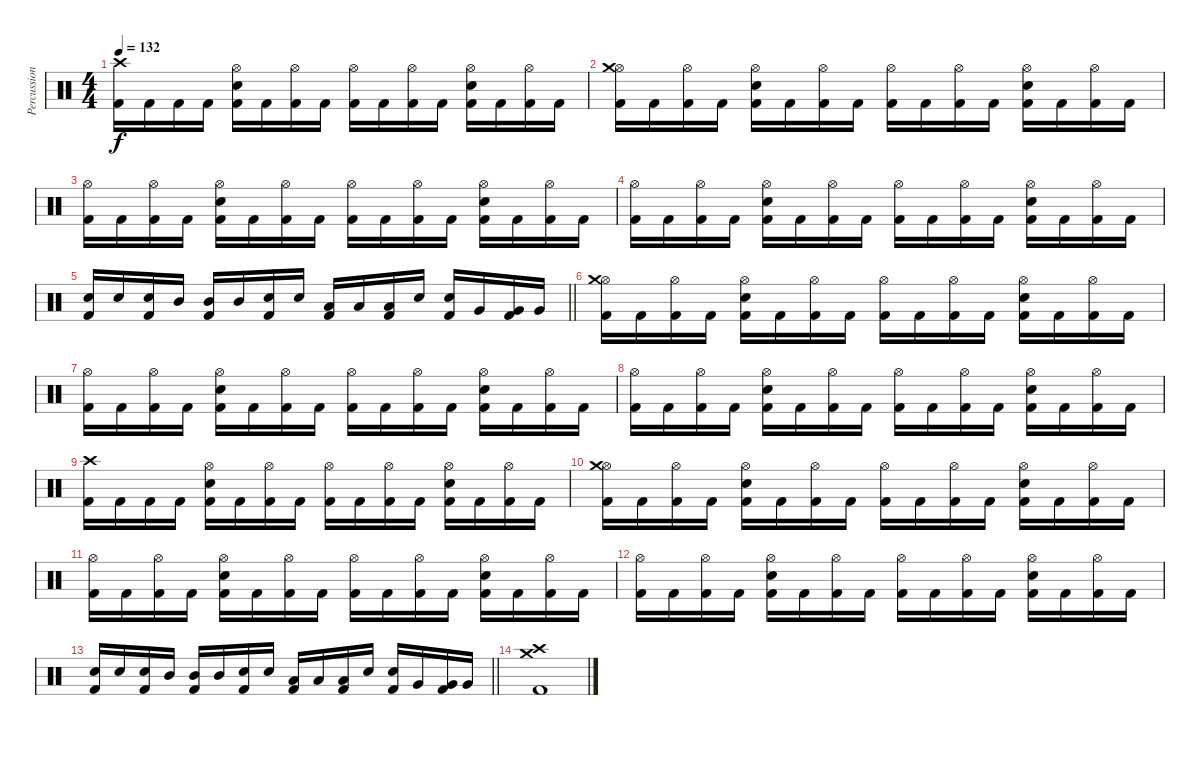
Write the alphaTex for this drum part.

\track ("Percussion" "Percussion") {instrument percussion}
\staff {score}
\articulation defaults
\ts (4 4)
\tempo 132
\clef neutral
\ks c
("Kick (hit) 2" "Crash high (hit)").16{dy f} "Kick (hit) 2".16 "Kick (hit) 2".16 "Kick (hit) 2".16 ("Kick (hit) 2" "Electric Snare (hit)" "Hi-Hat (open)").16 "Kick (hit) 2".16 ("Kick (hit) 2" "Hi-Hat (open)").16 "Kick (hit) 2".16 ("Kick (hit) 2" "Hi-Hat (open)").16 "Kick (hit) 2".16 ("Kick (hit) 2" "Hi-Hat (open)").16 "Kick (hit) 2".16 ("Kick (hit) 2" "Electric Snare (hit)" "Hi-Hat (open)").16 "Kick (hit) 2".16 ("Kick (hit) 2" "Hi-Hat (open)").16 "Kick (hit) 2".16 |
("Kick (hit) 2" "Hi-Hat (open)" "Crash medium (hit)").16 "Kick (hit) 2".16 ("Kick (hit) 2" "Hi-Hat (open)").16 "Kick (hit) 2".16 ("Kick (hit) 2" "Electric Snare (hit)" "Hi-Hat (open)").16 "Kick (hit) 2".16 ("Kick (hit) 2" "Hi-Hat (open)").16 "Kick (hit) 2".16 ("Kick (hit) 2" "Hi-Hat (open)").16 "Kick (hit) 2".16 ("Kick (hit) 2" "Hi-Hat (open)").16 "Kick (hit) 2".16 ("Kick (hit) 2" "Electric Snare (hit)" "Hi-Hat (open)").16 "Kick (hit) 2".16 ("Kick (hit) 2" "Hi-Hat (open)").16 "Kick (hit) 2".16 |
("Kick (hit) 2" "Hi-Hat (open)").16 "Kick (hit) 2".16 ("Kick (hit) 2" "Hi-Hat (open)").16 "Kick (hit) 2".16 ("Kick (hit) 2" "Electric Snare (hit)" "Hi-Hat (open)").16 "Kick (hit) 2".16 ("Kick (hit) 2" "Hi-Hat (open)").16 "Kick (hit) 2".16 ("Kick (hit) 2" "Hi-Hat (open)").16 "Kick (hit) 2".16 ("Kick (hit) 2" "Hi-Hat (open)").16 "Kick (hit) 2".16 ("Kick (hit) 2" "Electric Snare (hit)" "Hi-Hat (open)").16 "Kick (hit) 2".16 ("Kick (hit) 2" "Hi-Hat (open)").16 "Kick (hit) 2".16 |
("Kick (hit) 2" "Hi-Hat (open)").16 "Kick (hit) 2".16 ("Kick (hit) 2" "Hi-Hat (open)").16 "Kick (hit) 2".16 ("Kick (hit) 2" "Electric Snare (hit)" "Hi-Hat (open)").16 "Kick (hit) 2".16 ("Kick (hit) 2" "Hi-Hat (open)").16 "Kick (hit) 2".16 ("Kick (hit) 2" "Hi-Hat (open)").16 "Kick (hit) 2".16 ("Kick (hit) 2" "Hi-Hat (open)").16 "Kick (hit) 2".16 ("Kick (hit) 2" "Electric Snare (hit)" "Hi-Hat (open)").16 "Kick (hit) 2".16 ("Kick (hit) 2" "Hi-Hat (open)").16 "Kick (hit) 2".16 |
\barLineRight lightlight
("Electric Snare (hit)" "Kick (hit) 2").16 "Electric Snare (hit)".16 ("Electric Snare (hit)" "Kick (hit) 2").16 "Mid Tom (hit)".16 ("Mid Tom (hit)" "Kick (hit) 2").16 "Mid Tom (hit)".16 ("Electric Snare (hit)" "Kick (hit) 2").16 "Electric Snare (hit)".16 ("Low Tom (hit)" "Kick (hit) 2").16 "Low Tom (hit)".16 ("Low Tom (hit)" "Kick (hit) 2").16 "Electric Snare (hit)".16 ("Electric Snare (hit)" "Kick (hit) 2").16 "Very Low Tom (hit)".16 ("Very Low Tom (hit)" "Kick (hit) 2").16 "Very Low Tom (hit)".16 |
("Kick (hit) 2" "Hi-Hat (open)" "Crash medium (hit)").16 "Kick (hit) 2".16 ("Kick (hit) 2" "Hi-Hat (open)").16 "Kick (hit) 2".16 ("Kick (hit) 2" "Electric Snare (hit)" "Hi-Hat (open)").16 "Kick (hit) 2".16 ("Kick (hit) 2" "Hi-Hat (open)").16 "Kick (hit) 2".16 ("Kick (hit) 2" "Hi-Hat (open)").16 "Kick (hit) 2".16 ("Kick (hit) 2" "Hi-Hat (open)").16 "Kick (hit) 2".16 ("Kick (hit) 2" "Electric Snare (hit)" "Hi-Hat (open)").16 "Kick (hit) 2".16 ("Kick (hit) 2" "Hi-Hat (open)").16 "Kick (hit) 2".16 |
("Kick (hit) 2" "Hi-Hat (open)").16 "Kick (hit) 2".16 ("Kick (hit) 2" "Hi-Hat (open)").16 "Kick (hit) 2".16 ("Kick (hit) 2" "Electric Snare (hit)" "Hi-Hat (open)").16 "Kick (hit) 2".16 ("Kick (hit) 2" "Hi-Hat (open)").16 "Kick (hit) 2".16 ("Kick (hit) 2" "Hi-Hat (open)").16 "Kick (hit) 2".16 ("Kick (hit) 2" "Hi-Hat (open)").16 "Kick (hit) 2".16 ("Kick (hit) 2" "Electric Snare (hit)" "Hi-Hat (open)").16 "Kick (hit) 2".16 ("Kick (hit) 2" "Hi-Hat (open)").16 "Kick (hit) 2".16 |
("Kick (hit) 2" "Hi-Hat (open)").16 "Kick (hit) 2".16 ("Kick (hit) 2" "Hi-Hat (open)").16 "Kick (hit) 2".16 ("Kick (hit) 2" "Electric Snare (hit)" "Hi-Hat (open)").16 "Kick (hit) 2".16 ("Kick (hit) 2" "Hi-Hat (open)").16 "Kick (hit) 2".16 ("Kick (hit) 2" "Hi-Hat (open)").16 "Kick (hit) 2".16 ("Kick (hit) 2" "Hi-Hat (open)").16 "Kick (hit) 2".16 ("Kick (hit) 2" "Electric Snare (hit)" "Hi-Hat (open)").16 "Kick (hit) 2".16 ("Kick (hit) 2" "Hi-Hat (open)").16 "Kick (hit) 2".16 |
("Kick (hit) 2" "Crash high (hit)").16 "Kick (hit) 2".16 "Kick (hit) 2".16 "Kick (hit) 2".16 ("Kick (hit) 2" "Electric Snare (hit)" "Hi-Hat (open)").16 "Kick (hit) 2".16 ("Kick (hit) 2" "Hi-Hat (open)").16 "Kick (hit) 2".16 ("Kick (hit) 2" "Hi-Hat (open)").16 "Kick (hit) 2".16 ("Kick (hit) 2" "Hi-Hat (open)").16 "Kick (hit) 2".16 ("Kick (hit) 2" "Electric Snare (hit)" "Hi-Hat (open)").16 "Kick (hit) 2".16 ("Kick (hit) 2" "Hi-Hat (open)").16 "Kick (hit) 2".16 |
("Kick (hit) 2" "Hi-Hat (open)" "Crash medium (hit)").16 "Kick (hit) 2".16 ("Kick (hit) 2" "Hi-Hat (open)").16 "Kick (hit) 2".16 ("Kick (hit) 2" "Electric Snare (hit)" "Hi-Hat (open)").16 "Kick (hit) 2".16 ("Kick (hit) 2" "Hi-Hat (open)").16 "Kick (hit) 2".16 ("Kick (hit) 2" "Hi-Hat (open)").16 "Kick (hit) 2".16 ("Kick (hit) 2" "Hi-Hat (open)").16 "Kick (hit) 2".16 ("Kick (hit) 2" "Electric Snare (hit)" "Hi-Hat (open)").16 "Kick (hit) 2".16 ("Kick (hit) 2" "Hi-Hat (open)").16 "Kick (hit) 2".16 |
("Kick (hit) 2" "Hi-Hat (open)").16 "Kick (hit) 2".16 ("Kick (hit) 2" "Hi-Hat (open)").16 "Kick (hit) 2".16 ("Kick (hit) 2" "Electric Snare (hit)" "Hi-Hat (open)").16 "Kick (hit) 2".16 ("Kick (hit) 2" "Hi-Hat (open)").16 "Kick (hit) 2".16 ("Kick (hit) 2" "Hi-Hat (open)").16 "Kick (hit) 2".16 ("Kick (hit) 2" "Hi-Hat (open)").16 "Kick (hit) 2".16 ("Kick (hit) 2" "Electric Snare (hit)" "Hi-Hat (open)").16 "Kick (hit) 2".16 ("Kick (hit) 2" "Hi-Hat (open)").16 "Kick (hit) 2".16 |
("Kick (hit) 2" "Hi-Hat (open)").16 "Kick (hit) 2".16 ("Kick (hit) 2" "Hi-Hat (open)").16 "Kick (hit) 2".16 ("Kick (hit) 2" "Electric Snare (hit)" "Hi-Hat (open)").16 "Kick (hit) 2".16 ("Kick (hit) 2" "Hi-Hat (open)").16 "Kick (hit) 2".16 ("Kick (hit) 2" "Hi-Hat (open)").16 "Kick (hit) 2".16 ("Kick (hit) 2" "Hi-Hat (open)").16 "Kick (hit) 2".16 ("Kick (hit) 2" "Electric Snare (hit)" "Hi-Hat (open)").16 "Kick (hit) 2".16 ("Kick (hit) 2" "Hi-Hat (open)").16 "Kick (hit) 2".16 |
\barLineRight lightlight
("Electric Snare (hit)" "Kick (hit) 2").16 "Electric Snare (hit)".16 ("Electric Snare (hit)" "Kick (hit) 2").16 "Mid Tom (hit)".16 ("Mid Tom (hit)" "Kick (hit) 2").16 "Mid Tom (hit)".16 ("Electric Snare (hit)" "Kick (hit) 2").16 "Electric Snare (hit)".16 ("Low Tom (hit)" "Kick (hit) 2").16 "Low Tom (hit)".16 ("Low Tom (hit)" "Kick (hit) 2").16 "Electric Snare (hit)".16 ("Electric Snare (hit)" "Kick (hit) 2").16 "Very Low Tom (hit)".16 ("Very Low Tom (hit)" "Kick (hit) 2").16 "Very Low Tom (hit)".16 |
("Crash medium (hit)" "Kick (hit) 2" "Crash high (hit)").1
